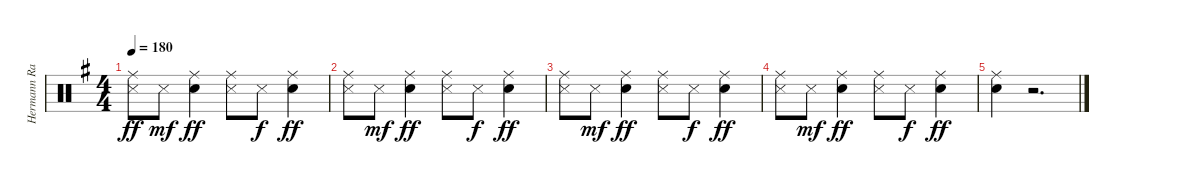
\track ("Hermann Rarebel" "Hermann Ra") {instrument percussion}
\staff {score}
\articulation defaults
\ts (4 4)
\tempo 180
\clef neutral
\ks eminor
("Metronome (hit)" "Ride (middle)").8{dy ff} "Metronome (hit)".8{dy mf} ("Snare (hit) 2" "Ride (middle)").4{dy ff} ("Metronome (hit)" "Ride (middle)").8 "Metronome (hit)".8{dy f} ("Snare (hit) 2" "Ride (middle)").4{dy ff} |
("Metronome (hit)" "Ride (middle)").8 "Metronome (hit)".8{dy mf} ("Snare (hit) 2" "Ride (middle)").4{dy ff} ("Metronome (hit)" "Ride (middle)").8 "Metronome (hit)".8{dy f} ("Snare (hit) 2" "Ride (middle)").4{dy ff} |
("Metronome (hit)" "Ride (middle)").8 "Metronome (hit)".8{dy mf} ("Snare (hit) 2" "Ride (middle)").4{dy ff} ("Metronome (hit)" "Ride (middle)").8 "Metronome (hit)".8{dy f} ("Snare (hit) 2" "Ride (middle)").4{dy ff} |
("Metronome (hit)" "Ride (middle)").8 "Metronome (hit)".8{dy mf} ("Snare (hit) 2" "Ride (middle)").4{dy ff} ("Metronome (hit)" "Ride (middle)").8 "Metronome (hit)".8{dy f} ("Snare (hit) 2" "Ride (middle)").4{dy ff} |
("Snare (hit) 2" "Ride (middle)").4 r.2{d}
